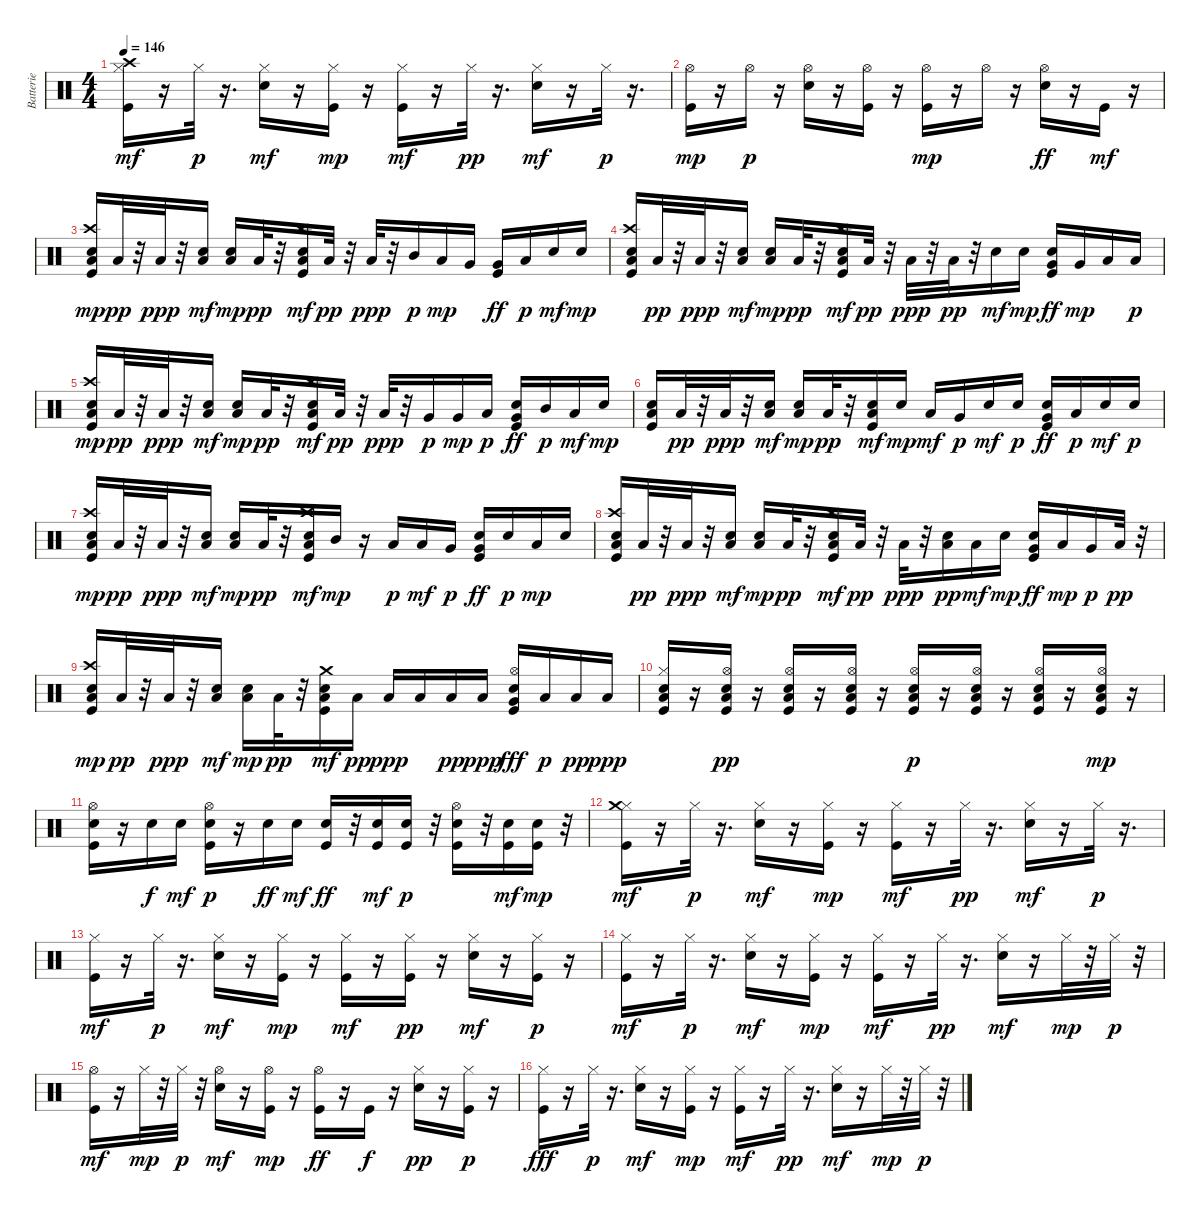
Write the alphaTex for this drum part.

\track ("Batterie" "Batterie") {instrument percussion}
\staff {score}
\articulation defaults
\ts (4 4)
\tempo 146
\clef neutral
\ks c
("Kick (hit)" "Hi-Hat (closed)" "Crash high (hit)").16{dy mf} r.16 "Hi-Hat (closed)".32{dy p} r.16{d} ("Electric Snare (hit)" "Hi-Hat (closed)").16{dy mf} r.16 ("Kick (hit)" "Hi-Hat (closed)").16{dy mp} r.16 ("Kick (hit)" "Hi-Hat (closed)").16{dy mf} r.16 "Hi-Hat (closed)".32{dy pp} r.16{d} ("Electric Snare (hit)" "Hi-Hat (closed)").16{dy mf} r.16 "Hi-Hat (closed)".32{dy p} r.16{d} |
("Kick (hit)" "Hi-Hat (open)").16{dy mp} r.16 "Hi-Hat (open)".16{dy p} r.16 ("Electric Snare (hit)" "Hi-Hat (open)").16 r.16 ("Kick (hit)" "Hi-Hat (open)").16 r.16 ("Kick (hit)" "Hi-Hat (open)").16{dy mp} r.16 "Hi-Hat (open)".16 r.16 ("Electric Snare (hit)" "Hi-Hat (open)").16{dy ff} r.16 "Kick (hit)".16{dy mf} r.16 |
("Kick (hit)" "Electric Snare (hit)" "Crash high (hit)" "Low Tom (hit)").16{dy mp} "Low Floor Tom (hit)".32{dy pp} r.32 "Low Floor Tom (hit)".32{dy ppp} r.32 ("Electric Snare (hit)" "Low Tom (hit)").16{dy mf} ("Electric Snare (hit)" "Low Tom (hit)").16{dy mp} "Low Floor Tom (hit)".32{dy pp} r.32 ("Kick (hit)" "Electric Snare (hit)" "Crash high (hit)" "Low Tom (hit)").16{dy mf} "Low Floor Tom (hit)".32{dy pp} r.32 "Low Floor Tom (hit)".32{dy ppp} r.32 "Mid Tom (hit)".16{dy p} "Low Tom (hit)".16{dy mp} "Very Low Tom (hit)".16 ("Very Low Tom (hit)" "Kick (hit)").16{dy ff} "Low Floor Tom (hit)".16{dy p} "Electric Snare (hit)".16{dy mf} "Electric Snare (hit)".16{dy mp} |
("Kick (hit)" "Electric Snare (hit)" "Crash high (hit)" "Low Tom (hit)").16 "Low Floor Tom (hit)".32{dy pp} r.32 "Low Floor Tom (hit)".32{dy ppp} r.32 ("Electric Snare (hit)" "Low Tom (hit)").16{dy mf} ("Electric Snare (hit)" "Low Tom (hit)").16{dy mp} "Low Floor Tom (hit)".32{dy pp} r.32 ("Kick (hit)" "Electric Snare (hit)" "Crash high (hit)" "Low Tom (hit)").16{dy mf} "Low Floor Tom (hit)".32{dy pp} r.32 "Low Floor Tom (hit)".32{dy ppp} r.32 "Low Floor Tom (hit)".32{dy pp} r.32 "Electric Snare (hit)".16{dy mf} "Electric Snare (hit)".16{dy mp} ("Very Low Tom (hit)" "Kick (hit)" "Electric Snare (hit)").16{dy ff} "Very Low Tom (hit)".16{dy mp} "Low Tom (hit)".16 "Low Floor Tom (hit)".16{dy p} |
("Kick (hit)" "Electric Snare (hit)" "Crash high (hit)" "Low Tom (hit)").16{dy mp} "Low Floor Tom (hit)".32{dy pp} r.32 "Low Floor Tom (hit)".32{dy ppp} r.32 ("Electric Snare (hit)" "Low Tom (hit)").16{dy mf} ("Electric Snare (hit)" "Low Tom (hit)").16{dy mp} "Low Floor Tom (hit)".32{dy pp} r.32 ("Kick (hit)" "Electric Snare (hit)" "Crash high (hit)" "Low Tom (hit)").16{dy mf} "Low Floor Tom (hit)".32{dy pp} r.32 "Low Floor Tom (hit)".32{dy ppp} r.32 "Very Low Tom (hit)".16{dy p} "Very Low Tom (hit)".16{dy mp} "Low Tom (hit)".16{dy p} ("Very Low Tom (hit)" "Kick (hit)" "Electric Snare (hit)").16{dy ff} "Mid Tom (hit)".16{dy p} "Low Tom (hit)".16{dy mf} "Electric Snare (hit)".16{dy mp} |
("Kick (hit)" "Electric Snare (hit)" "Low Tom (hit)").16 "Low Floor Tom (hit)".32{dy pp} r.32 "Low Floor Tom (hit)".32{dy ppp} r.32 ("Electric Snare (hit)" "Low Tom (hit)").16{dy mf} ("Electric Snare (hit)" "Low Tom (hit)").16{dy mp} "Low Floor Tom (hit)".32{dy pp} r.32 ("Kick (hit)" "Electric Snare (hit)" "Low Tom (hit)").16{dy mf} "Electric Snare (hit)".16{dy mp} "Low Tom (hit)".16{dy mf} "Very Low Tom (hit)".16{dy p} "Electric Snare (hit)".16{dy mf} "Electric Snare (hit)".16{dy p} ("Very Low Tom (hit)" "Kick (hit)" "Electric Snare (hit)").16{dy ff} "Low Tom (hit)".16{dy p} "Electric Snare (hit)".16{dy mf} "Electric Snare (hit)".16{dy p} |
("Kick (hit)" "Electric Snare (hit)" "Crash high (hit)" "Low Tom (hit)").16{dy mp} "Low Floor Tom (hit)".32{dy pp} r.32 "Low Floor Tom (hit)".32{dy ppp} r.32 ("Electric Snare (hit)" "Low Tom (hit)").16{dy mf} ("Electric Snare (hit)" "Low Tom (hit)").16{dy mp} "Low Floor Tom (hit)".32{dy pp} r.32 ("Kick (hit)" "Electric Snare (hit)" "Crash high (hit)" "Low Tom (hit)").16{dy mf} "Mid Tom (hit)".16{dy mp} r.16 "Low Tom (hit)".16{dy p} "Low Tom (hit)".16{dy mf} "Very Low Tom (hit)".16{dy p} ("Very Low Tom (hit)" "Kick (hit)" "Electric Snare (hit)").16{dy ff} "Electric Snare (hit)".16{dy p} "Low Tom (hit)".16{dy mp} "Electric Snare (hit)".16 |
("Kick (hit)" "Electric Snare (hit)" "Crash high (hit)" "Low Tom (hit)").16 "Low Floor Tom (hit)".32{dy pp} r.32 "Low Floor Tom (hit)".32{dy ppp} r.32 ("Electric Snare (hit)" "Low Tom (hit)").16{dy mf} ("Electric Snare (hit)" "Low Tom (hit)").16{dy mp} "Low Floor Tom (hit)".32{dy pp} r.32 ("Kick (hit)" "Electric Snare (hit)" "Crash high (hit)" "Low Tom (hit)").16{dy mf} "Low Floor Tom (hit)".32{dy pp} r.32 "Low Floor Tom (hit)".32{dy ppp} r.32 ("Electric Snare (hit)" "Low Floor Tom (hit)").16{dy pp} "Low Tom (hit)".16{dy mf} "Electric Snare (hit)".16{dy mp} ("Very Low Tom (hit)" "Kick (hit)" "Electric Snare (hit)").16{dy ff} "Low Tom (hit)".16{dy mp} "Very Low Tom (hit)".16{dy p} "Low Floor Tom (hit)".32{dy pp} r.32 |
("Kick (hit)" "Electric Snare (hit)" "Crash high (hit)" "Low Tom (hit)").16{dy mp} "Low Floor Tom (hit)".32{dy pp} r.32 "Low Floor Tom (hit)".32{dy ppp} r.32 ("Electric Snare (hit)" "Low Tom (hit)").16{dy mf} ("Electric Snare (hit)" "Low Tom (hit)").16{dy mp} "Low Floor Tom (hit)".32{dy pp} r.32 ("Kick (hit)" "Electric Snare (hit)" "Crash medium (hit)" "Low Tom (hit)").16{dy mf} "Low Floor Tom (hit)".16{dy pp} "Low Floor Tom (hit)".16{dy ppp} "Low Floor Tom (hit)".16 "Low Floor Tom (hit)".16{dy pp} "Low Floor Tom (hit)".16{dy ppp} ("Very Low Tom (hit)" "Kick (hit)" "Electric Snare (hit)" "Hi-Hat (open)").16{dy fff} "Low Floor Tom (hit)".16{dy p} "Low Floor Tom (hit)".16{dy pp} "Low Floor Tom (hit)".16{dy ppp} |
("Kick (hit)" "Electric Snare (hit)" "Hi-Hat (closed)" "Low Tom (hit)").16 r.16 ("Kick (hit)" "Electric Snare (hit)" "Hi-Hat (open)" "Low Tom (hit)").16{dy pp} r.16 ("Kick (hit)" "Electric Snare (hit)" "Hi-Hat (open)" "Low Tom (hit)").16 r.16 ("Kick (hit)" "Electric Snare (hit)" "Hi-Hat (open)" "Low Tom (hit)").16 r.16 ("Kick (hit)" "Electric Snare (hit)" "Hi-Hat (open)" "Low Tom (hit)").16{dy p} r.16 ("Kick (hit)" "Electric Snare (hit)" "Hi-Hat (open)" "Low Tom (hit)").16 r.16 ("Kick (hit)" "Electric Snare (hit)" "Hi-Hat (open)" "Low Tom (hit)").16 r.16 ("Kick (hit)" "Electric Snare (hit)" "Hi-Hat (open)" "Low Tom (hit)").16{dy mp} r.16 |
("Kick (hit)" "Electric Snare (hit)" "Hi-Hat (open)").16 r.16 "Electric Snare (hit)".16{dy f} "Electric Snare (hit)".16{dy mf} ("Kick (hit)" "Electric Snare (hit)" "Hi-Hat (open)").16{dy p} r.16 "Electric Snare (hit)".16{dy ff} "Electric Snare (hit)".16{dy mf} ("Kick (hit)" "Electric Snare (hit)").16{dy ff} r.32 ("Kick (hit)" "Electric Snare (hit)").16{dy mf} ("Kick (hit)" "Electric Snare (hit)").16{dy p} r.32 ("Kick (hit)" "Electric Snare (hit)" "Hi-Hat (open)").16 r.32 ("Kick (hit)" "Electric Snare (hit)").16{dy mf} ("Kick (hit)" "Electric Snare (hit)").16{dy mp} r.32 |
("Kick (hit)" "Hi-Hat (closed)" "Crash medium (hit)").16{dy mf} r.16 "Hi-Hat (closed)".32{dy p} r.16{d} ("Electric Snare (hit)" "Hi-Hat (closed)").16{dy mf} r.16 ("Kick (hit)" "Hi-Hat (closed)").16{dy mp} r.16 ("Kick (hit)" "Hi-Hat (closed)").16{dy mf} r.16 "Hi-Hat (closed)".32{dy pp} r.16{d} ("Electric Snare (hit)" "Hi-Hat (closed)").16{dy mf} r.16 "Hi-Hat (closed)".32{dy p} r.16{d} |
("Kick (hit)" "Hi-Hat (closed)").16{dy mf} r.16 "Hi-Hat (closed)".32{dy p} r.16{d} ("Electric Snare (hit)" "Hi-Hat (closed)").16{dy mf} r.16 ("Kick (hit)" "Hi-Hat (closed)").16{dy mp} r.16 ("Kick (hit)" "Hi-Hat (closed)").16{dy mf} r.16 ("Kick (hit)" "Hi-Hat (closed)").16{dy pp} r.16 ("Electric Snare (hit)" "Hi-Hat (closed)").16{dy mf} r.16 ("Kick (hit)" "Hi-Hat (closed)").16{dy p} r.16 |
("Kick (hit)" "Hi-Hat (closed)").16{dy mf} r.16 "Hi-Hat (closed)".32{dy p} r.16{d} ("Electric Snare (hit)" "Hi-Hat (closed)").16{dy mf} r.16 ("Kick (hit)" "Hi-Hat (closed)").16{dy mp} r.16 ("Kick (hit)" "Hi-Hat (closed)").16{dy mf} r.16 "Hi-Hat (closed)".32{dy pp} r.16{d} ("Electric Snare (hit)" "Hi-Hat (closed)").16{dy mf} r.16 "Hi-Hat (closed)".32{dy mp} r.32 "Hi-Hat (closed)".32{dy p} r.32 |
("Kick (hit)" "Hi-Hat (open)").16{dy mf} r.16 "Hi-Hat (closed)".32{dy mp} r.32 "Hi-Hat (closed)".32{dy p} r.32 ("Electric Snare (hit)" "Hi-Hat (open)").16{dy mf} r.16 ("Kick (hit)" "Hi-Hat (open)").16{dy mp} r.16 ("Kick (hit)" "Hi-Hat (open)").16{dy ff} r.16 "Kick (hit)".16{dy f} r.16 ("Electric Snare (hit)" "Hi-Hat (closed)").16{dy pp} r.16 ("Kick (hit)" "Hi-Hat (closed)").16{dy p} r.16 |
("Kick (hit)" "Hi-Hat (closed)").16{dy fff} r.16 "Hi-Hat (closed)".32{dy p} r.16{d} ("Electric Snare (hit)" "Hi-Hat (closed)").16{dy mf} r.16 ("Kick (hit)" "Hi-Hat (closed)").16{dy mp} r.16 ("Kick (hit)" "Hi-Hat (closed)").16{dy mf} r.16 "Hi-Hat (closed)".32{dy pp} r.16{d} ("Electric Snare (hit)" "Hi-Hat (closed)").16{dy mf} r.16 "Hi-Hat (closed)".32{dy mp} r.32 "Hi-Hat (closed)".32{dy p} r.32
